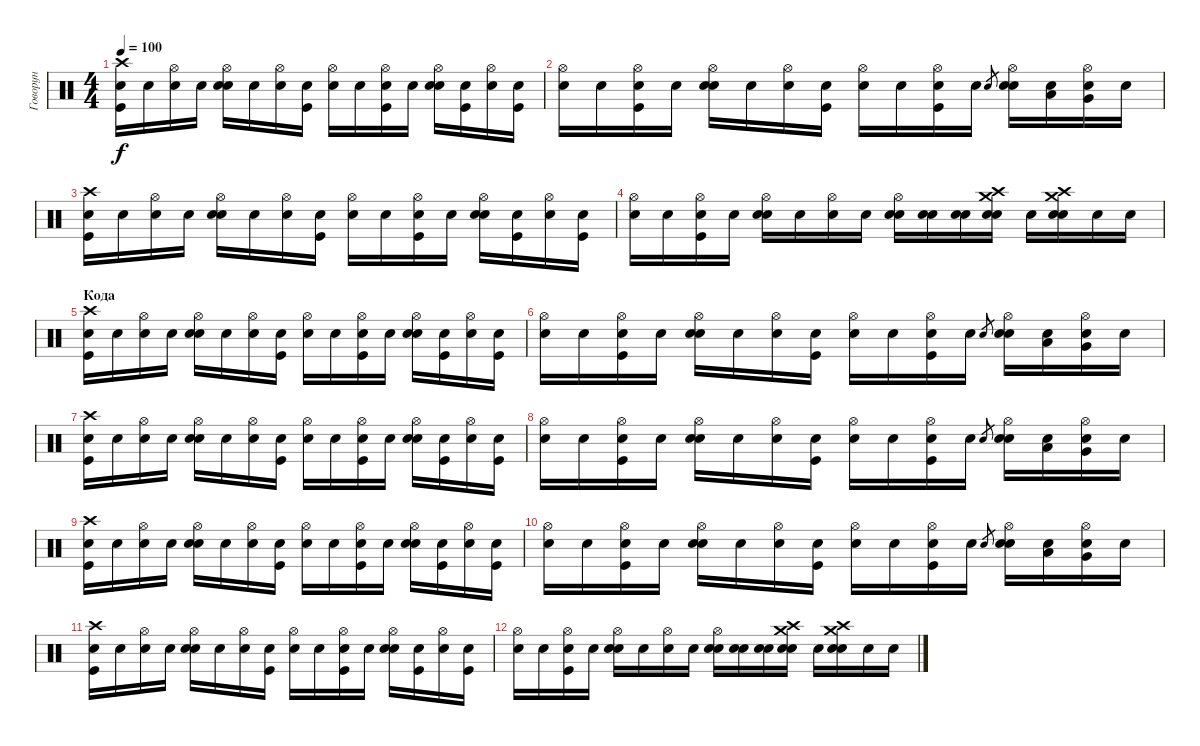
\track ("Говорун" "Говорун") {instrument percussion}
\staff {score}
\articulation defaults
\ts (4 4)
\tempo 100
\clef neutral
\ks c
("Kick (hit)" "Crash high (hit)" "Snare (hit)"{x}).16{dy f} "Snare (hit)"{x}.16 ("Hi-Hat (open)" "Snare (hit)"{x}).16 "Snare (hit)"{x}.16 ("Snare (hit) 2" "Hi-Hat (open)" "Snare (hit)"{x}).16 "Snare (hit)"{x}.16 ("Hi-Hat (open)" "Snare (hit)"{x}).16 ("Kick (hit)" "Snare (hit)"{x}).16 ("Hi-Hat (open)" "Snare (hit)"{x}).16 "Snare (hit)"{x}.16 ("Kick (hit)" "Hi-Hat (open)" "Snare (hit)"{x}).16 "Snare (hit)"{x}.16 ("Snare (hit) 2" "Hi-Hat (open)" "Snare (hit)"{x}).16 ("Kick (hit)" "Snare (hit)"{x}).16 ("Hi-Hat (open)" "Snare (hit)"{x}).16 ("Kick (hit)" "Snare (hit)"{x}).16 |
("Hi-Hat (open)" "Snare (hit)"{x}).16 "Snare (hit)"{x}.16 ("Kick (hit)" "Hi-Hat (open)" "Snare (hit)"{x}).16 "Snare (hit)"{x}.16 ("Snare (hit) 2" "Hi-Hat (open)" "Snare (hit)"{x}).16 "Snare (hit)"{x}.16 ("Hi-Hat (open)" "Snare (hit)"{x}).16 ("Kick (hit)" "Snare (hit)"{x}).16 ("Hi-Hat (open)" "Snare (hit)"{x}).16 "Snare (hit)"{x}.16 ("Kick (hit)" "Hi-Hat (open)" "Snare (hit)"{x}).16 "Snare (hit)"{x}.16 "Snare (hit) 2".8{gr} ("Snare (hit) 2" "Hi-Hat (open)" "Snare (hit)"{x}).16 ("Low Tom (hit)" "Snare (hit)"{x}).16 ("Very Low Tom (hit)" "Hi-Hat (open)" "Snare (hit)"{x}).16 "Snare (hit)"{x}.16 |
("Kick (hit)" "Crash high (hit)" "Snare (hit)"{x}).16 "Snare (hit)"{x}.16 ("Hi-Hat (open)" "Snare (hit)"{x}).16 "Snare (hit)"{x}.16 ("Snare (hit) 2" "Hi-Hat (open)" "Snare (hit)"{x}).16 "Snare (hit)"{x}.16 ("Hi-Hat (open)" "Snare (hit)"{x}).16 ("Kick (hit)" "Snare (hit)"{x}).16 ("Hi-Hat (open)" "Snare (hit)"{x}).16 "Snare (hit)"{x}.16 ("Kick (hit)" "Hi-Hat (open)" "Snare (hit)"{x}).16 "Snare (hit)"{x}.16 ("Snare (hit) 2" "Hi-Hat (open)" "Snare (hit)"{x}).16 ("Kick (hit)" "Snare (hit)"{x}).16 ("Hi-Hat (open)" "Snare (hit)"{x}).16 ("Kick (hit)" "Snare (hit)"{x}).16 |
("Hi-Hat (open)" "Snare (hit)"{x}).16 "Snare (hit)"{x}.16 ("Kick (hit)" "Hi-Hat (open)" "Snare (hit)"{x}).16 "Snare (hit)"{x}.16 ("Snare (hit) 2" "Hi-Hat (open)" "Snare (hit)"{x}).16 "Snare (hit)"{x}.16 ("Hi-Hat (open)" "Snare (hit)"{x}).16 "Snare (hit)"{x}.16 ("Snare (hit) 2" "Hi-Hat (open)" "Snare (hit)"{x}).16 ("Snare (hit) 2" "Snare (hit)"{x}).16 ("Snare (hit) 2" "Snare (hit)"{x}).16 ("Snare (hit) 2" "Crash high (hit)" "Crash medium (hit)" "Snare (hit)"{x}).16 "Snare (hit)"{x}.16 ("Snare (hit) 2" "Crash medium (hit)" "Crash high (hit)" "Snare (hit)"{x}).16 "Snare (hit)"{x}.16 "Snare (hit)"{x}.16 |
\section ("" "Кода")
("Kick (hit)" "Crash high (hit)" "Snare (hit)"{x}).16 "Snare (hit)"{x}.16 ("Hi-Hat (open)" "Snare (hit)"{x}).16 "Snare (hit)"{x}.16 ("Snare (hit) 2" "Hi-Hat (open)" "Snare (hit)"{x}).16 "Snare (hit)"{x}.16 ("Hi-Hat (open)" "Snare (hit)"{x}).16 ("Kick (hit)" "Snare (hit)"{x}).16 ("Hi-Hat (open)" "Snare (hit)"{x}).16 "Snare (hit)"{x}.16 ("Kick (hit)" "Hi-Hat (open)" "Snare (hit)"{x}).16 "Snare (hit)"{x}.16 ("Snare (hit) 2" "Hi-Hat (open)" "Snare (hit)"{x}).16 ("Kick (hit)" "Snare (hit)"{x}).16 ("Hi-Hat (open)" "Snare (hit)"{x}).16 ("Kick (hit)" "Snare (hit)"{x}).16 |
("Hi-Hat (open)" "Snare (hit)"{x}).16 "Snare (hit)"{x}.16 ("Kick (hit)" "Hi-Hat (open)" "Snare (hit)"{x}).16 "Snare (hit)"{x}.16 ("Snare (hit) 2" "Hi-Hat (open)" "Snare (hit)"{x}).16 "Snare (hit)"{x}.16 ("Hi-Hat (open)" "Snare (hit)"{x}).16 ("Kick (hit)" "Snare (hit)"{x}).16 ("Hi-Hat (open)" "Snare (hit)"{x}).16 "Snare (hit)"{x}.16 ("Kick (hit)" "Hi-Hat (open)" "Snare (hit)"{x}).16 "Snare (hit)"{x}.16 "Snare (hit) 2".8{gr} ("Snare (hit) 2" "Hi-Hat (open)" "Snare (hit)"{x}).16 ("Low Tom (hit)" "Snare (hit)"{x}).16 ("Very Low Tom (hit)" "Hi-Hat (open)" "Snare (hit)"{x}).16 "Snare (hit)"{x}.16 |
("Kick (hit)" "Crash high (hit)" "Snare (hit)"{x}).16 "Snare (hit)"{x}.16 ("Hi-Hat (open)" "Snare (hit)"{x}).16 "Snare (hit)"{x}.16 ("Snare (hit) 2" "Hi-Hat (open)" "Snare (hit)"{x}).16 "Snare (hit)"{x}.16 ("Hi-Hat (open)" "Snare (hit)"{x}).16 ("Kick (hit)" "Snare (hit)"{x}).16 ("Hi-Hat (open)" "Snare (hit)"{x}).16 "Snare (hit)"{x}.16 ("Kick (hit)" "Hi-Hat (open)" "Snare (hit)"{x}).16 "Snare (hit)"{x}.16 ("Snare (hit) 2" "Hi-Hat (open)" "Snare (hit)"{x}).16 ("Kick (hit)" "Snare (hit)"{x}).16 ("Hi-Hat (open)" "Snare (hit)"{x}).16 ("Kick (hit)" "Snare (hit)"{x}).16 |
("Hi-Hat (open)" "Snare (hit)"{x}).16 "Snare (hit)"{x}.16 ("Kick (hit)" "Hi-Hat (open)" "Snare (hit)"{x}).16 "Snare (hit)"{x}.16 ("Snare (hit) 2" "Hi-Hat (open)" "Snare (hit)"{x}).16 "Snare (hit)"{x}.16 ("Hi-Hat (open)" "Snare (hit)"{x}).16 ("Kick (hit)" "Snare (hit)"{x}).16 ("Hi-Hat (open)" "Snare (hit)"{x}).16 "Snare (hit)"{x}.16 ("Kick (hit)" "Hi-Hat (open)" "Snare (hit)"{x}).16 "Snare (hit)"{x}.16 "Snare (hit) 2".8{gr} ("Snare (hit) 2" "Hi-Hat (open)" "Snare (hit)"{x}).16 ("Low Tom (hit)" "Snare (hit)"{x}).16 ("Very Low Tom (hit)" "Hi-Hat (open)" "Snare (hit)"{x}).16 "Snare (hit)"{x}.16 |
("Kick (hit)" "Crash high (hit)" "Snare (hit)"{x}).16 "Snare (hit)"{x}.16 ("Hi-Hat (open)" "Snare (hit)"{x}).16 "Snare (hit)"{x}.16 ("Snare (hit) 2" "Hi-Hat (open)" "Snare (hit)"{x}).16 "Snare (hit)"{x}.16 ("Hi-Hat (open)" "Snare (hit)"{x}).16 ("Kick (hit)" "Snare (hit)"{x}).16 ("Hi-Hat (open)" "Snare (hit)"{x}).16 "Snare (hit)"{x}.16 ("Kick (hit)" "Hi-Hat (open)" "Snare (hit)"{x}).16 "Snare (hit)"{x}.16 ("Snare (hit) 2" "Hi-Hat (open)" "Snare (hit)"{x}).16 ("Kick (hit)" "Snare (hit)"{x}).16 ("Hi-Hat (open)" "Snare (hit)"{x}).16 ("Kick (hit)" "Snare (hit)"{x}).16 |
("Hi-Hat (open)" "Snare (hit)"{x}).16 "Snare (hit)"{x}.16 ("Kick (hit)" "Hi-Hat (open)" "Snare (hit)"{x}).16 "Snare (hit)"{x}.16 ("Snare (hit) 2" "Hi-Hat (open)" "Snare (hit)"{x}).16 "Snare (hit)"{x}.16 ("Hi-Hat (open)" "Snare (hit)"{x}).16 ("Kick (hit)" "Snare (hit)"{x}).16 ("Hi-Hat (open)" "Snare (hit)"{x}).16 "Snare (hit)"{x}.16 ("Kick (hit)" "Hi-Hat (open)" "Snare (hit)"{x}).16 "Snare (hit)"{x}.16 "Snare (hit) 2".8{gr} ("Snare (hit) 2" "Hi-Hat (open)" "Snare (hit)"{x}).16 ("Low Tom (hit)" "Snare (hit)"{x}).16 ("Very Low Tom (hit)" "Hi-Hat (open)" "Snare (hit)"{x}).16 "Snare (hit)"{x}.16 |
("Kick (hit)" "Crash high (hit)" "Snare (hit)"{x}).16 "Snare (hit)"{x}.16 ("Hi-Hat (open)" "Snare (hit)"{x}).16 "Snare (hit)"{x}.16 ("Snare (hit) 2" "Hi-Hat (open)" "Snare (hit)"{x}).16 "Snare (hit)"{x}.16 ("Hi-Hat (open)" "Snare (hit)"{x}).16 ("Kick (hit)" "Snare (hit)"{x}).16 ("Hi-Hat (open)" "Snare (hit)"{x}).16 "Snare (hit)"{x}.16 ("Kick (hit)" "Hi-Hat (open)" "Snare (hit)"{x}).16 "Snare (hit)"{x}.16 ("Snare (hit) 2" "Hi-Hat (open)" "Snare (hit)"{x}).16 ("Kick (hit)" "Snare (hit)"{x}).16 ("Hi-Hat (open)" "Snare (hit)"{x}).16 ("Kick (hit)" "Snare (hit)"{x}).16 |
("Hi-Hat (open)" "Snare (hit)"{x}).16 "Snare (hit)"{x}.16 ("Kick (hit)" "Hi-Hat (open)" "Snare (hit)"{x}).16 "Snare (hit)"{x}.16 ("Snare (hit) 2" "Hi-Hat (open)" "Snare (hit)"{x}).16 "Snare (hit)"{x}.16 ("Hi-Hat (open)" "Snare (hit)"{x}).16 "Snare (hit)"{x}.16 ("Snare (hit) 2" "Hi-Hat (open)" "Snare (hit)"{x}).16 ("Snare (hit) 2" "Snare (hit)"{x}).16 ("Snare (hit) 2" "Snare (hit)"{x}).16 ("Snare (hit) 2" "Crash high (hit)" "Crash medium (hit)" "Snare (hit)"{x}).16 "Snare (hit)"{x}.16 ("Snare (hit) 2" "Crash medium (hit)" "Crash high (hit)" "Snare (hit)"{x}).16 "Snare (hit)"{x}.16 "Snare (hit)"{x}.16
